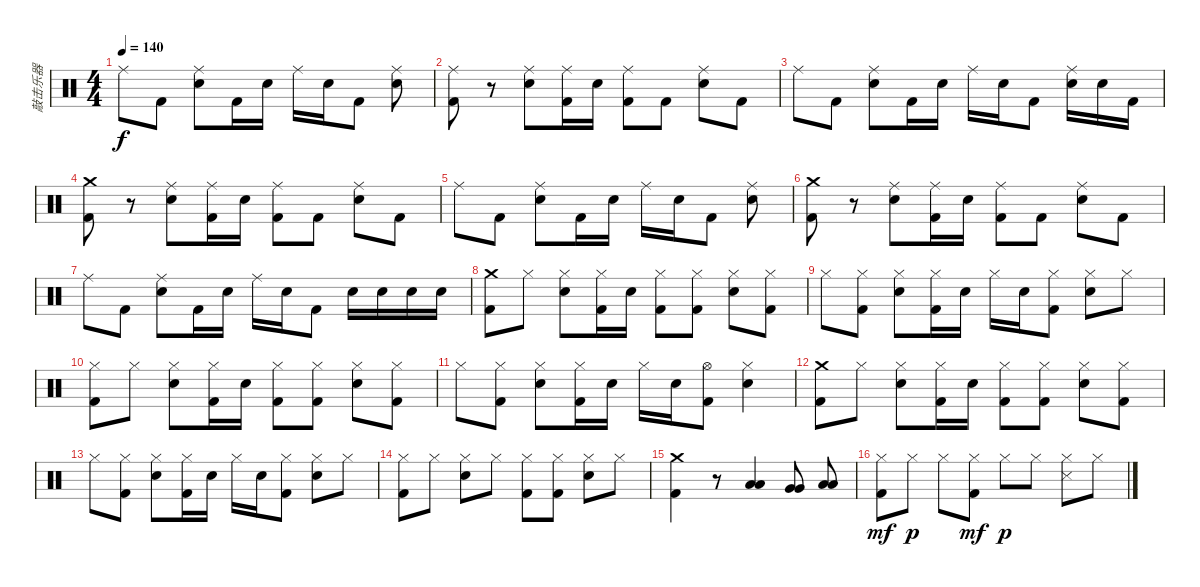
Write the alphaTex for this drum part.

\track ("敲击乐器" "敲击乐器") {instrument percussion}
\staff {score}
\articulation defaults
\ts (4 4)
\tempo 140
\clef neutral
\ks c "Ride (middle)".8{dy f} "Kick (hit) 2".8
("Ride (middle)" "Snare (hit) 2").8 "Kick (hit) 2".16 "Snare (hit) 2".16 "Ride (middle)".16 "Snare (hit) 2".16 "Kick (hit) 2".8 ("Ride (middle)" "Snare (hit) 2").8 |
("Ride (middle)" "Kick (hit) 2").8 r.8 ("Ride (middle)" "Snare (hit) 2").8 ("Ride (middle)" "Kick (hit) 2").16 "Snare (hit) 2".16 ("Ride (middle)" "Kick (hit) 2").8 "Kick (hit) 2".8 ("Ride (middle)" "Snare (hit) 2").8 "Kick (hit) 2".8 |
"Ride (middle)".8 "Kick (hit) 2".8 ("Ride (middle)" "Snare (hit) 2").8 "Kick (hit) 2".16 "Snare (hit) 2".16 "Ride (middle)".16 "Snare (hit) 2".16 "Kick (hit) 2".8 ("Ride (middle)" "Snare (hit) 2").16 "Snare (hit) 2".16 "Kick (hit) 2".16 |
("Crash medium (hit)" "Kick (hit) 2").8 r.8 ("Ride (middle)" "Snare (hit) 2").8 ("Ride (middle)" "Kick (hit) 2").16 "Snare (hit) 2".16 ("Ride (middle)" "Kick (hit) 2").8 "Kick (hit) 2".8 ("Ride (middle)" "Snare (hit) 2").8 "Kick (hit) 2".8 |
"Ride (middle)".8 "Kick (hit) 2".8 ("Ride (middle)" "Snare (hit) 2").8 "Kick (hit) 2".16 "Snare (hit) 2".16 "Ride (middle)".16 "Snare (hit) 2".16 "Kick (hit) 2".8 ("Ride (middle)" "Snare (hit) 2").8 |
("Crash medium (hit)" "Kick (hit) 2").8 r.8 ("Ride (middle)" "Snare (hit) 2").8 ("Ride (middle)" "Kick (hit) 2").16 "Snare (hit) 2".16 ("Ride (middle)" "Kick (hit) 2").8 "Kick (hit) 2".8 ("Ride (middle)" "Snare (hit) 2").8 "Kick (hit) 2".8 |
"Ride (middle)".8 "Kick (hit) 2".8 ("Ride (middle)" "Snare (hit) 2").8 "Kick (hit) 2".16 "Snare (hit) 2".16 "Ride (middle)".16 "Snare (hit) 2".16 "Kick (hit) 2".8 "Snare (hit) 2".16 "Snare (hit) 2".16 "Snare (hit) 2".16 "Snare (hit) 2".16 |
("Crash medium (hit)" "Kick (hit) 2").8 "Hi-Hat (closed)".8 ("Hi-Hat (closed)" "Snare (hit) 2").8 ("Hi-Hat (closed)" "Kick (hit) 2").16 "Snare (hit) 2".16 ("Hi-Hat (closed)" "Kick (hit) 2").8 ("Hi-Hat (closed)" "Kick (hit) 2").8 ("Hi-Hat (closed)" "Snare (hit) 2").8 ("Hi-Hat (closed)" "Kick (hit) 2").8 |
"Hi-Hat (closed)".8 ("Hi-Hat (closed)" "Kick (hit) 2").8 ("Hi-Hat (closed)" "Snare (hit) 2").8 ("Hi-Hat (closed)" "Kick (hit) 2").16 "Snare (hit) 2".16 "Hi-Hat (closed)".16 "Snare (hit) 2".16 ("Hi-Hat (closed)" "Kick (hit) 2").8 ("Hi-Hat (closed)" "Snare (hit) 2").8 "Hi-Hat (closed)".8 |
("Hi-Hat (closed)" "Kick (hit) 2").8 "Hi-Hat (closed)".8 ("Hi-Hat (closed)" "Snare (hit) 2").8 ("Hi-Hat (closed)" "Kick (hit) 2").16 "Snare (hit) 2".16 ("Hi-Hat (closed)" "Kick (hit) 2").8 ("Hi-Hat (closed)" "Kick (hit) 2").8 ("Hi-Hat (closed)" "Snare (hit) 2").8 ("Hi-Hat (closed)" "Kick (hit) 2").8 |
"Hi-Hat (closed)".8 ("Hi-Hat (closed)" "Kick (hit) 2").8 ("Hi-Hat (closed)" "Snare (hit) 2").8 ("Hi-Hat (closed)" "Kick (hit) 2").16 "Snare (hit) 2".16 "Hi-Hat (closed)".16 "Snare (hit) 2".16 ("Hi-Hat (open)" "Kick (hit) 2").8 ("Hi-Hat (closed)" "Snare (hit) 2").4 |
("Crash medium (hit)" "Kick (hit) 2").8 "Hi-Hat (closed)".8 ("Hi-Hat (closed)" "Snare (hit) 2").8 ("Hi-Hat (closed)" "Kick (hit) 2").16 "Snare (hit) 2".16 ("Hi-Hat (closed)" "Kick (hit) 2").8 ("Hi-Hat (closed)" "Kick (hit) 2").8 ("Hi-Hat (closed)" "Snare (hit) 2").8 ("Hi-Hat (closed)" "Kick (hit) 2").8 |
"Hi-Hat (closed)".8 ("Hi-Hat (closed)" "Kick (hit) 2").8 ("Hi-Hat (closed)" "Snare (hit) 2").8 ("Hi-Hat (closed)" "Kick (hit) 2").16 "Snare (hit) 2".16 "Hi-Hat (closed)".16 "Snare (hit) 2".16 ("Hi-Hat (closed)" "Kick (hit) 2").8 ("Hi-Hat (closed)" "Snare (hit) 2").8 "Hi-Hat (closed)".8 |
("Hi-Hat (closed)" "Kick (hit) 2").8 "Hi-Hat (closed)".8 ("Hi-Hat (closed)" "Snare (hit) 2").8 "Hi-Hat (closed)".8 ("Hi-Hat (closed)" "Kick (hit) 2").8 ("Hi-Hat (closed)" "Kick (hit) 2").8 ("Hi-Hat (closed)" "Snare (hit) 2").8 "Hi-Hat (closed)".8 |
("Crash medium (hit)" "Kick (hit) 2").4 r.8 ("Low Tom (hit)" "Low Tom (hit)").4{bd 480} ("Very Low Tom (hit)" "Very Low Tom (hit)").8{bd 480} ("Low Floor Tom (hit)" "Low Floor Tom (hit)").8{bd 480} |
("Hi-Hat (closed)" "Kick (hit) 2").8{dy mf} "Hi-Hat (closed)".8{dy p} "Hi-Hat (closed)".8 ("Hi-Hat (closed)" "Kick (hit) 2").8{dy mf} "Hi-Hat (closed)".8{dy p} "Hi-Hat (closed)".8 ("Hi-Hat (closed)" "Snare (side stick) 3").8 "Hi-Hat (closed)".8
